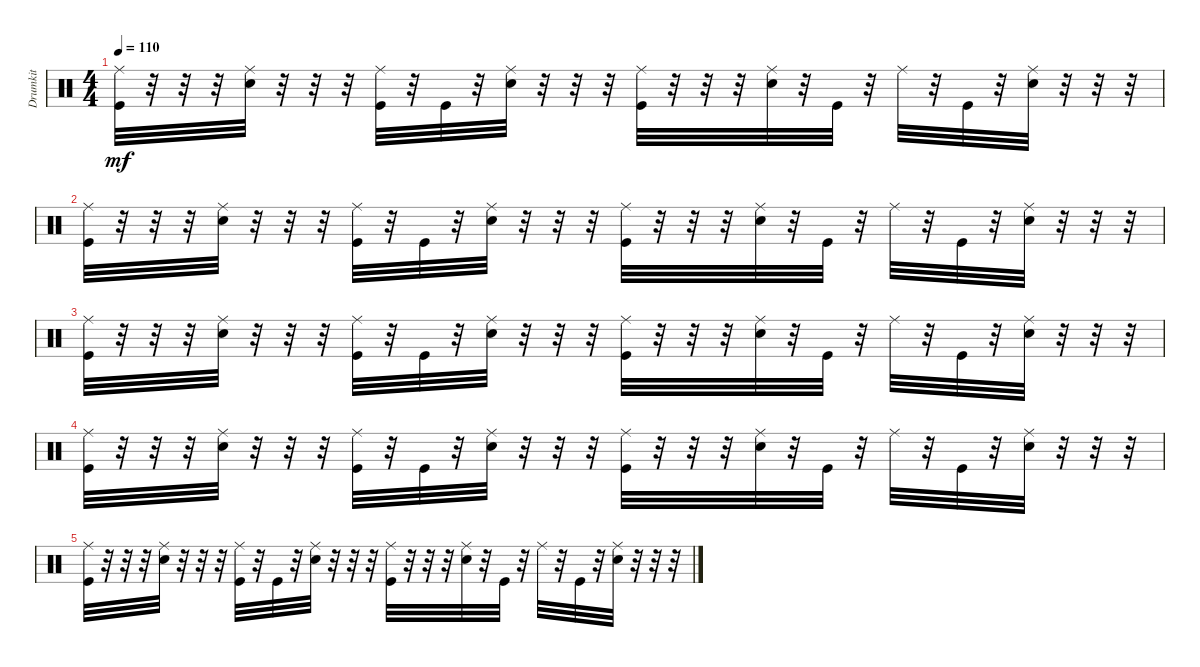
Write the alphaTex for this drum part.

\track ("Drumkit" "Drumkit") {instrument percussion}
\staff {score}
\articulation defaults
\ts (4 4)
\tempo 110
\clef neutral
\ks c
("Kick (hit)" "Ride (middle)").32{dy mf} r.32 r.32 r.32 ("Snare (hit) 2" "Ride (middle)").32 r.32 r.32 r.32 ("Kick (hit)" "Ride (middle)").32 r.32 "Kick (hit)".32 r.32 ("Snare (hit) 2" "Ride (middle)").32 r.32 r.32 r.32 ("Kick (hit)" "Ride (middle)").32 r.32 r.32 r.32 ("Ride (middle)" "Snare (hit) 2").32 r.32 "Kick (hit)".32 r.32 "Ride (middle)".32 r.32 "Kick (hit)".32 r.32 ("Ride (middle)" "Snare (hit) 2").32 r.32 r.32 r.32 |
("Kick (hit)" "Ride (middle)").32 r.32 r.32 r.32 ("Snare (hit) 2" "Ride (middle)").32 r.32 r.32 r.32 ("Kick (hit)" "Ride (middle)").32 r.32 "Kick (hit)".32 r.32 ("Snare (hit) 2" "Ride (middle)").32 r.32 r.32 r.32 ("Kick (hit)" "Ride (middle)").32 r.32 r.32 r.32 ("Ride (middle)" "Snare (hit) 2").32 r.32 "Kick (hit)".32 r.32 "Ride (middle)".32 r.32 "Kick (hit)".32 r.32 ("Ride (middle)" "Snare (hit) 2").32 r.32 r.32 r.32 |
("Kick (hit)" "Ride (middle)").32 r.32 r.32 r.32 ("Snare (hit) 2" "Ride (middle)").32 r.32 r.32 r.32 ("Kick (hit)" "Ride (middle)").32 r.32 "Kick (hit)".32 r.32 ("Snare (hit) 2" "Ride (middle)").32 r.32 r.32 r.32 ("Kick (hit)" "Ride (middle)").32 r.32 r.32 r.32 ("Ride (middle)" "Snare (hit) 2").32 r.32 "Kick (hit)".32 r.32 "Ride (middle)".32 r.32 "Kick (hit)".32 r.32 ("Ride (middle)" "Snare (hit) 2").32 r.32 r.32 r.32 |
("Kick (hit)" "Ride (middle)").32 r.32 r.32 r.32 ("Snare (hit) 2" "Ride (middle)").32 r.32 r.32 r.32 ("Kick (hit)" "Ride (middle)").32 r.32 "Kick (hit)".32 r.32 ("Snare (hit) 2" "Ride (middle)").32 r.32 r.32 r.32 ("Kick (hit)" "Ride (middle)").32 r.32 r.32 r.32 ("Ride (middle)" "Snare (hit) 2").32 r.32 "Kick (hit)".32 r.32 "Ride (middle)".32 r.32 "Kick (hit)".32 r.32 ("Ride (middle)" "Snare (hit) 2").32 r.32 r.32 r.32 |
("Kick (hit)" "Ride (middle)").32 r.32 r.32 r.32 ("Snare (hit) 2" "Ride (middle)").32 r.32 r.32 r.32 ("Kick (hit)" "Ride (middle)").32 r.32 "Kick (hit)".32 r.32 ("Snare (hit) 2" "Ride (middle)").32 r.32 r.32 r.32 ("Kick (hit)" "Ride (middle)").32 r.32 r.32 r.32 ("Ride (middle)" "Snare (hit) 2").32 r.32 "Kick (hit)".32 r.32 "Ride (middle)".32 r.32 "Kick (hit)".32 r.32 ("Ride (middle)" "Snare (hit) 2").32 r.32 r.32 r.32
